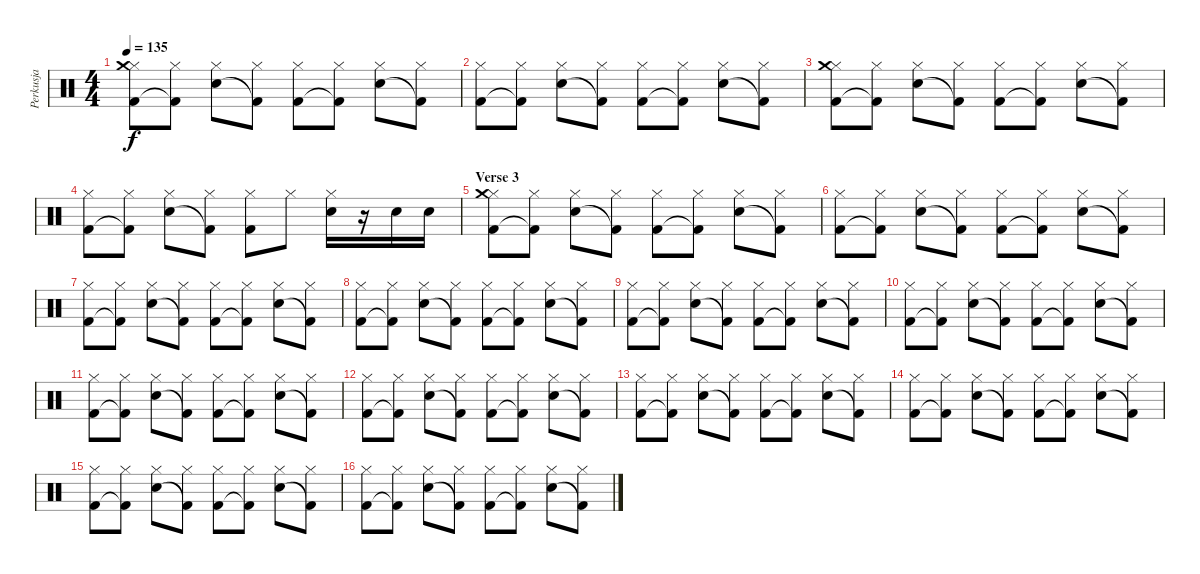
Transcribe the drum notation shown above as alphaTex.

\track ("Perkusja" "Perkusja") {instrument percussion}
\staff {score}
\articulation defaults
\ts (4 4)
\tempo 135
\clef neutral
\ks c
("Kick (hit) 2" "Hi-Hat (closed)" "Crash medium (hit)").8{dy f} ("Kick (hit) 2"{t} "Hi-Hat (closed)").8 ("Snare (hit) 2" "Hi-Hat (closed)").8 ("Kick (hit) 2"{t} "Hi-Hat (closed)").8 ("Kick (hit) 2" "Hi-Hat (closed)").8 ("Kick (hit) 2"{t} "Hi-Hat (closed)").8 ("Snare (hit) 2" "Hi-Hat (closed)").8 ("Kick (hit) 2"{t} "Hi-Hat (closed)").8 |
("Kick (hit) 2" "Hi-Hat (closed)").8 ("Kick (hit) 2"{t} "Hi-Hat (closed)").8 ("Snare (hit) 2" "Hi-Hat (closed)").8 ("Kick (hit) 2"{t} "Hi-Hat (closed)").8 ("Kick (hit) 2" "Hi-Hat (closed)").8 ("Kick (hit) 2"{t} "Hi-Hat (closed)").8 ("Snare (hit) 2" "Hi-Hat (closed)").8 ("Kick (hit) 2"{t} "Hi-Hat (closed)").8 |
("Kick (hit) 2" "Hi-Hat (closed)" "Crash medium (hit)").8 ("Kick (hit) 2"{t} "Hi-Hat (closed)").8 ("Snare (hit) 2" "Hi-Hat (closed)").8 ("Kick (hit) 2"{t} "Hi-Hat (closed)").8 ("Kick (hit) 2" "Hi-Hat (closed)").8 ("Kick (hit) 2"{t} "Hi-Hat (closed)").8 ("Snare (hit) 2" "Hi-Hat (closed)").8 ("Kick (hit) 2"{t} "Hi-Hat (closed)").8 |
("Kick (hit) 2" "Hi-Hat (closed)").8 ("Kick (hit) 2"{t} "Hi-Hat (closed)").8 ("Snare (hit) 2" "Hi-Hat (closed)").8 ("Kick (hit) 2"{t} "Hi-Hat (closed)").8 ("Kick (hit) 2" "Hi-Hat (closed)").8 "Hi-Hat (closed)".8 ("Snare (hit) 2" "Hi-Hat (closed)").16 r.16 "Snare (hit) 2".16 "Snare (hit) 2".16 |
\section ("" "Verse 3")
("Kick (hit) 2" "Hi-Hat (closed)" "Crash medium (hit)").8 ("Kick (hit) 2"{t} "Hi-Hat (closed)").8 ("Snare (hit) 2" "Hi-Hat (closed)").8 ("Kick (hit) 2"{t} "Hi-Hat (closed)").8 ("Kick (hit) 2" "Hi-Hat (closed)").8 ("Kick (hit) 2"{t} "Hi-Hat (closed)").8 ("Snare (hit) 2" "Hi-Hat (closed)").8 ("Kick (hit) 2"{t} "Hi-Hat (closed)").8 |
("Kick (hit) 2" "Hi-Hat (closed)").8 ("Kick (hit) 2"{t} "Hi-Hat (closed)").8 ("Snare (hit) 2" "Hi-Hat (closed)").8 ("Kick (hit) 2"{t} "Hi-Hat (closed)").8 ("Kick (hit) 2" "Hi-Hat (closed)").8 ("Kick (hit) 2"{t} "Hi-Hat (closed)").8 ("Snare (hit) 2" "Hi-Hat (closed)").8 ("Kick (hit) 2"{t} "Hi-Hat (closed)").8 |
("Kick (hit) 2" "Hi-Hat (closed)").8 ("Kick (hit) 2"{t} "Hi-Hat (closed)").8 ("Snare (hit) 2" "Hi-Hat (closed)").8 ("Kick (hit) 2"{t} "Hi-Hat (closed)").8 ("Kick (hit) 2" "Hi-Hat (closed)").8 ("Kick (hit) 2"{t} "Hi-Hat (closed)").8 ("Snare (hit) 2" "Hi-Hat (closed)").8 ("Kick (hit) 2"{t} "Hi-Hat (closed)").8 |
("Kick (hit) 2" "Hi-Hat (closed)").8 ("Kick (hit) 2"{t} "Hi-Hat (closed)").8 ("Snare (hit) 2" "Hi-Hat (closed)").8 ("Kick (hit) 2"{t} "Hi-Hat (closed)").8 ("Kick (hit) 2" "Hi-Hat (closed)").8 ("Kick (hit) 2"{t} "Hi-Hat (closed)").8 ("Snare (hit) 2" "Hi-Hat (closed)").8 ("Kick (hit) 2"{t} "Hi-Hat (closed)").8 |
("Kick (hit) 2" "Hi-Hat (closed)").8 ("Kick (hit) 2"{t} "Hi-Hat (closed)").8 ("Snare (hit) 2" "Hi-Hat (closed)").8 ("Kick (hit) 2"{t} "Hi-Hat (closed)").8 ("Kick (hit) 2" "Hi-Hat (closed)").8 ("Kick (hit) 2"{t} "Hi-Hat (closed)").8 ("Snare (hit) 2" "Hi-Hat (closed)").8 ("Kick (hit) 2"{t} "Hi-Hat (closed)").8 |
("Kick (hit) 2" "Hi-Hat (closed)").8 ("Kick (hit) 2"{t} "Hi-Hat (closed)").8 ("Snare (hit) 2" "Hi-Hat (closed)").8 ("Kick (hit) 2"{t} "Hi-Hat (closed)").8 ("Kick (hit) 2" "Hi-Hat (closed)").8 ("Kick (hit) 2"{t} "Hi-Hat (closed)").8 ("Snare (hit) 2" "Hi-Hat (closed)").8 ("Kick (hit) 2"{t} "Hi-Hat (closed)").8 |
("Kick (hit) 2" "Hi-Hat (closed)").8 ("Kick (hit) 2"{t} "Hi-Hat (closed)").8 ("Snare (hit) 2" "Hi-Hat (closed)").8 ("Kick (hit) 2"{t} "Hi-Hat (closed)").8 ("Kick (hit) 2" "Hi-Hat (closed)").8 ("Kick (hit) 2"{t} "Hi-Hat (closed)").8 ("Snare (hit) 2" "Hi-Hat (closed)").8 ("Kick (hit) 2"{t} "Hi-Hat (closed)").8 |
("Kick (hit) 2" "Hi-Hat (closed)").8 ("Kick (hit) 2"{t} "Hi-Hat (closed)").8 ("Snare (hit) 2" "Hi-Hat (closed)").8 ("Kick (hit) 2"{t} "Hi-Hat (closed)").8 ("Kick (hit) 2" "Hi-Hat (closed)").8 ("Kick (hit) 2"{t} "Hi-Hat (closed)").8 ("Snare (hit) 2" "Hi-Hat (closed)").8 ("Kick (hit) 2"{t} "Hi-Hat (closed)").8 |
("Kick (hit) 2" "Hi-Hat (closed)").8 ("Kick (hit) 2"{t} "Hi-Hat (closed)").8 ("Snare (hit) 2" "Hi-Hat (closed)").8 ("Kick (hit) 2"{t} "Hi-Hat (closed)").8 ("Kick (hit) 2" "Hi-Hat (closed)").8 ("Kick (hit) 2"{t} "Hi-Hat (closed)").8 ("Snare (hit) 2" "Hi-Hat (closed)").8 ("Kick (hit) 2"{t} "Hi-Hat (closed)").8 |
("Kick (hit) 2" "Hi-Hat (closed)").8 ("Kick (hit) 2"{t} "Hi-Hat (closed)").8 ("Snare (hit) 2" "Hi-Hat (closed)").8 ("Kick (hit) 2"{t} "Hi-Hat (closed)").8 ("Kick (hit) 2" "Hi-Hat (closed)").8 ("Kick (hit) 2"{t} "Hi-Hat (closed)").8 ("Snare (hit) 2" "Hi-Hat (closed)").8 ("Kick (hit) 2"{t} "Hi-Hat (closed)").8 |
("Kick (hit) 2" "Hi-Hat (closed)").8 ("Kick (hit) 2"{t} "Hi-Hat (closed)").8 ("Snare (hit) 2" "Hi-Hat (closed)").8 ("Kick (hit) 2"{t} "Hi-Hat (closed)").8 ("Kick (hit) 2" "Hi-Hat (closed)").8 ("Kick (hit) 2"{t} "Hi-Hat (closed)").8 ("Snare (hit) 2" "Hi-Hat (closed)").8 ("Kick (hit) 2"{t} "Hi-Hat (closed)").8 |
("Kick (hit) 2" "Hi-Hat (closed)").8 ("Kick (hit) 2"{t} "Hi-Hat (closed)").8 ("Snare (hit) 2" "Hi-Hat (closed)").8 ("Kick (hit) 2"{t} "Hi-Hat (closed)").8 ("Kick (hit) 2" "Hi-Hat (closed)").8 ("Kick (hit) 2"{t} "Hi-Hat (closed)").8 ("Snare (hit) 2" "Hi-Hat (closed)").8 ("Kick (hit) 2"{t} "Hi-Hat (closed)").8
